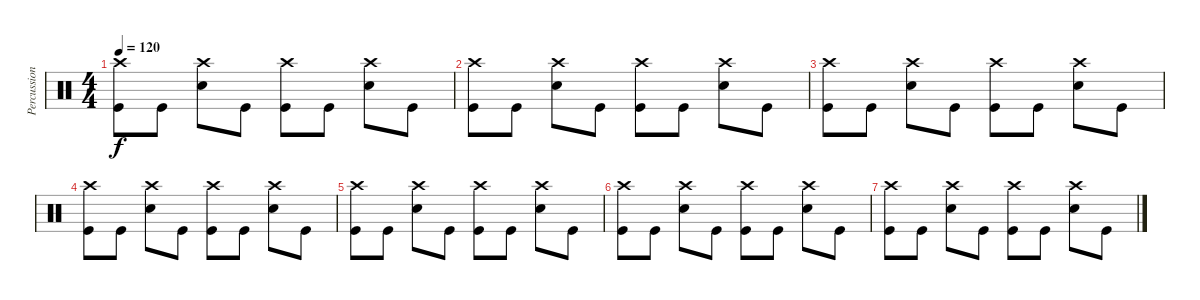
\track ("Percussion" "Percussion") {instrument percussion}
\staff {score}
\articulation defaults
\ts (4 4)
\tempo 120
\clef neutral
\ks c
("Crash high (hit)" "Kick (hit)").8{dy f} "Kick (hit)".8 ("Crash high (hit)" "Snare (hit) 2").8 "Kick (hit)".8 ("Crash high (hit)" "Kick (hit)").8 "Kick (hit)".8 ("Crash high (hit)" "Snare (hit) 2").8 "Kick (hit)".8 |
("Crash high (hit)" "Kick (hit)").8 "Kick (hit)".8 ("Crash high (hit)" "Snare (hit) 2").8 "Kick (hit)".8 ("Crash high (hit)" "Kick (hit)").8 "Kick (hit)".8 ("Crash high (hit)" "Snare (hit) 2").8 "Kick (hit)".8 |
("Crash high (hit)" "Kick (hit)").8 "Kick (hit)".8 ("Crash high (hit)" "Snare (hit) 2").8 "Kick (hit)".8 ("Crash high (hit)" "Kick (hit)").8 "Kick (hit)".8 ("Crash high (hit)" "Snare (hit) 2").8 "Kick (hit)".8 |
("Crash high (hit)" "Kick (hit)").8 "Kick (hit)".8 ("Crash high (hit)" "Snare (hit) 2").8 "Kick (hit)".8 ("Crash high (hit)" "Kick (hit)").8 "Kick (hit)".8 ("Crash high (hit)" "Snare (hit) 2").8 "Kick (hit)".8 |
("Crash high (hit)" "Kick (hit)").8 "Kick (hit)".8 ("Crash high (hit)" "Snare (hit) 2").8 "Kick (hit)".8 ("Crash high (hit)" "Kick (hit)").8 "Kick (hit)".8 ("Crash high (hit)" "Snare (hit) 2").8 "Kick (hit)".8 |
("Crash high (hit)" "Kick (hit)").8 "Kick (hit)".8 ("Crash high (hit)" "Snare (hit) 2").8 "Kick (hit)".8 ("Crash high (hit)" "Kick (hit)").8 "Kick (hit)".8 ("Crash high (hit)" "Snare (hit) 2").8 "Kick (hit)".8 |
("Crash high (hit)" "Kick (hit)").8 "Kick (hit)".8 ("Crash high (hit)" "Snare (hit) 2").8 "Kick (hit)".8 ("Crash high (hit)" "Kick (hit)").8 "Kick (hit)".8 ("Crash high (hit)" "Snare (hit) 2").8 "Kick (hit)".8
